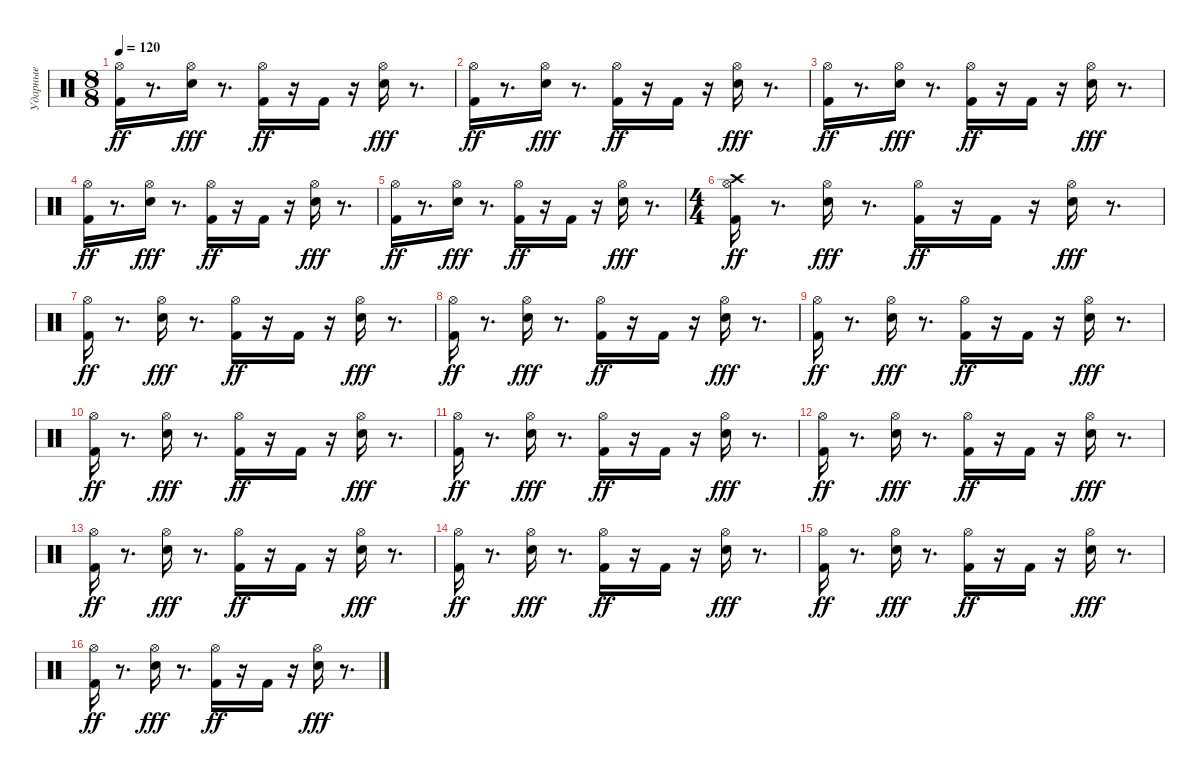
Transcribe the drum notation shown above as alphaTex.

\track ("Ударные" "Ударные") {instrument percussion}
\staff {score}
\articulation defaults
\ts (8 8)
\tempo 120
\clef neutral
\ks c
("Kick (hit) 2" "Hi-Hat (open)").16{dy ff} r.8{d} ("Snare (hit) 2" "Hi-Hat (open)").16{dy fff} r.8{d} ("Kick (hit) 2" "Hi-Hat (open)").16{dy ff} r.16 "Kick (hit) 2".16 r.16 ("Snare (hit) 2" "Hi-Hat (open)").16{dy fff} r.8{d} |
("Kick (hit) 2" "Hi-Hat (open)").16{dy ff} r.8{d} ("Snare (hit) 2" "Hi-Hat (open)").16{dy fff} r.8{d} ("Kick (hit) 2" "Hi-Hat (open)").16{dy ff} r.16 "Kick (hit) 2".16 r.16 ("Snare (hit) 2" "Hi-Hat (open)").16{dy fff} r.8{d} |
("Kick (hit) 2" "Hi-Hat (open)").16{dy ff} r.8{d} ("Snare (hit) 2" "Hi-Hat (open)").16{dy fff} r.8{d} ("Kick (hit) 2" "Hi-Hat (open)").16{dy ff} r.16 "Kick (hit) 2".16 r.16 ("Snare (hit) 2" "Hi-Hat (open)").16{dy fff} r.8{d} |
("Kick (hit) 2" "Hi-Hat (open)").16{dy ff} r.8{d} ("Snare (hit) 2" "Hi-Hat (open)").16{dy fff} r.8{d} ("Kick (hit) 2" "Hi-Hat (open)").16{dy ff} r.16 "Kick (hit) 2".16 r.16 ("Snare (hit) 2" "Hi-Hat (open)").16{dy fff} r.8{d} |
("Kick (hit) 2" "Hi-Hat (open)").16{dy ff} r.8{d} ("Snare (hit) 2" "Hi-Hat (open)").16{dy fff} r.8{d} ("Kick (hit) 2" "Hi-Hat (open)").16{dy ff} r.16 "Kick (hit) 2".16 r.16 ("Snare (hit) 2" "Hi-Hat (open)").16{dy fff} r.8{d} |
\ts (4 4)
("Kick (hit) 2" "Hi-Hat (open)" "Crash high (hit)").16{dy ff} r.8{d} ("Snare (hit) 2" "Hi-Hat (open)").16{dy fff} r.8{d} ("Kick (hit) 2" "Hi-Hat (open)").16{dy ff} r.16 "Kick (hit) 2".16 r.16 ("Snare (hit) 2" "Hi-Hat (open)").16{dy fff} r.8{d} |
("Kick (hit) 2" "Hi-Hat (open)").16{dy ff} r.8{d} ("Snare (hit) 2" "Hi-Hat (open)").16{dy fff} r.8{d} ("Kick (hit) 2" "Hi-Hat (open)").16{dy ff} r.16 "Kick (hit) 2".16 r.16 ("Snare (hit) 2" "Hi-Hat (open)").16{dy fff} r.8{d} |
("Kick (hit) 2" "Hi-Hat (open)").16{dy ff} r.8{d} ("Snare (hit) 2" "Hi-Hat (open)").16{dy fff} r.8{d} ("Kick (hit) 2" "Hi-Hat (open)").16{dy ff} r.16 "Kick (hit) 2".16 r.16 ("Snare (hit) 2" "Hi-Hat (open)").16{dy fff} r.8{d} |
("Kick (hit) 2" "Hi-Hat (open)").16{dy ff} r.8{d} ("Snare (hit) 2" "Hi-Hat (open)").16{dy fff} r.8{d} ("Kick (hit) 2" "Hi-Hat (open)").16{dy ff} r.16 "Kick (hit) 2".16 r.16 ("Snare (hit) 2" "Hi-Hat (open)").16{dy fff} r.8{d} |
("Kick (hit) 2" "Hi-Hat (open)").16{dy ff} r.8{d} ("Snare (hit) 2" "Hi-Hat (open)").16{dy fff} r.8{d} ("Kick (hit) 2" "Hi-Hat (open)").16{dy ff} r.16 "Kick (hit) 2".16 r.16 ("Snare (hit) 2" "Hi-Hat (open)").16{dy fff} r.8{d} |
("Kick (hit) 2" "Hi-Hat (open)").16{dy ff} r.8{d} ("Snare (hit) 2" "Hi-Hat (open)").16{dy fff} r.8{d} ("Kick (hit) 2" "Hi-Hat (open)").16{dy ff} r.16 "Kick (hit) 2".16 r.16 ("Snare (hit) 2" "Hi-Hat (open)").16{dy fff} r.8{d} |
("Kick (hit) 2" "Hi-Hat (open)").16{dy ff} r.8{d} ("Snare (hit) 2" "Hi-Hat (open)").16{dy fff} r.8{d} ("Kick (hit) 2" "Hi-Hat (open)").16{dy ff} r.16 "Kick (hit) 2".16 r.16 ("Snare (hit) 2" "Hi-Hat (open)").16{dy fff} r.8{d} |
("Kick (hit) 2" "Hi-Hat (open)").16{dy ff} r.8{d} ("Snare (hit) 2" "Hi-Hat (open)").16{dy fff} r.8{d} ("Kick (hit) 2" "Hi-Hat (open)").16{dy ff} r.16 "Kick (hit) 2".16 r.16 ("Snare (hit) 2" "Hi-Hat (open)").16{dy fff} r.8{d} |
("Kick (hit) 2" "Hi-Hat (open)").16{dy ff} r.8{d} ("Snare (hit) 2" "Hi-Hat (open)").16{dy fff} r.8{d} ("Kick (hit) 2" "Hi-Hat (open)").16{dy ff} r.16 "Kick (hit) 2".16 r.16 ("Snare (hit) 2" "Hi-Hat (open)").16{dy fff} r.8{d} |
("Kick (hit) 2" "Hi-Hat (open)").16{dy ff} r.8{d} ("Snare (hit) 2" "Hi-Hat (open)").16{dy fff} r.8{d} ("Kick (hit) 2" "Hi-Hat (open)").16{dy ff} r.16 "Kick (hit) 2".16 r.16 ("Snare (hit) 2" "Hi-Hat (open)").16{dy fff} r.8{d} |
("Kick (hit) 2" "Hi-Hat (open)").16{dy ff} r.8{d} ("Snare (hit) 2" "Hi-Hat (open)").16{dy fff} r.8{d} ("Kick (hit) 2" "Hi-Hat (open)").16{dy ff} r.16 "Kick (hit) 2".16 r.16 ("Snare (hit) 2" "Hi-Hat (open)").16{dy fff} r.8{d}
